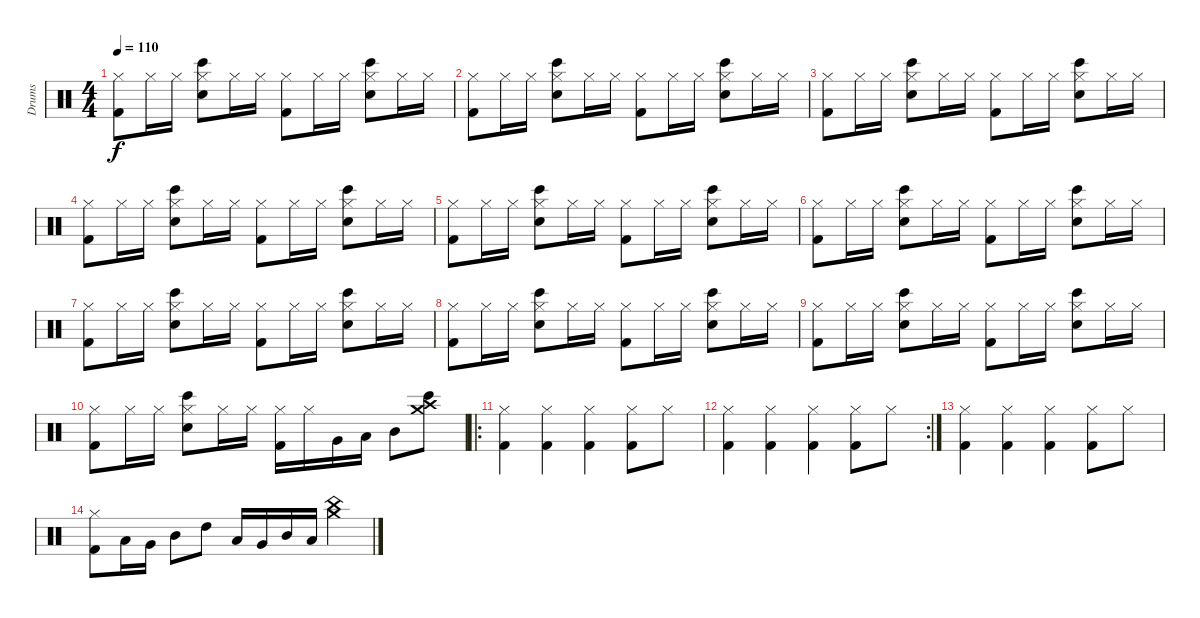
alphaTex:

\track ("Drums" "Drums") {instrument percussion}
\staff {score}
\articulation defaults
\ts (4 4)
\tempo 110
\clef neutral
\ks c
("Hi-Hat (closed)" "Kick (hit) 2").8{dy f} "Hi-Hat (closed)".16 "Hi-Hat (closed)".16 ("Hi-Hat (closed)" "Snare (hit) 2" "Bongo High (hit)").8 "Hi-Hat (closed)".16 "Hi-Hat (closed)".16 ("Hi-Hat (closed)" "Kick (hit) 2").8 "Hi-Hat (closed)".16 "Hi-Hat (closed)".16 ("Hi-Hat (closed)" "Snare (hit) 2" "Bongo High (hit)").8 "Hi-Hat (closed)".16 "Hi-Hat (closed)".16 |
("Hi-Hat (closed)" "Kick (hit) 2").8 "Hi-Hat (closed)".16 "Hi-Hat (closed)".16 ("Hi-Hat (closed)" "Snare (hit) 2" "Bongo High (hit)").8 "Hi-Hat (closed)".16 "Hi-Hat (closed)".16 ("Hi-Hat (closed)" "Kick (hit) 2").8 "Hi-Hat (closed)".16 "Hi-Hat (closed)".16 ("Hi-Hat (closed)" "Snare (hit) 2" "Bongo High (hit)").8 "Hi-Hat (closed)".16 "Hi-Hat (closed)".16 |
("Hi-Hat (closed)" "Kick (hit) 2").8 "Hi-Hat (closed)".16 "Hi-Hat (closed)".16 ("Hi-Hat (closed)" "Snare (hit) 2" "Bongo High (hit)").8 "Hi-Hat (closed)".16 "Hi-Hat (closed)".16 ("Hi-Hat (closed)" "Kick (hit) 2").8 "Hi-Hat (closed)".16 "Hi-Hat (closed)".16 ("Hi-Hat (closed)" "Snare (hit) 2" "Bongo High (hit)").8 "Hi-Hat (closed)".16 "Hi-Hat (closed)".16 |
("Hi-Hat (closed)" "Kick (hit) 2").8 "Hi-Hat (closed)".16 "Hi-Hat (closed)".16 ("Hi-Hat (closed)" "Snare (hit) 2" "Bongo High (hit)").8 "Hi-Hat (closed)".16 "Hi-Hat (closed)".16 ("Hi-Hat (closed)" "Kick (hit) 2").8 "Hi-Hat (closed)".16 "Hi-Hat (closed)".16 ("Hi-Hat (closed)" "Snare (hit) 2" "Bongo High (hit)").8 "Hi-Hat (closed)".16 "Hi-Hat (closed)".16 |
("Hi-Hat (closed)" "Kick (hit) 2").8 "Hi-Hat (closed)".16 "Hi-Hat (closed)".16 ("Hi-Hat (closed)" "Snare (hit) 2" "Bongo High (hit)").8 "Hi-Hat (closed)".16 "Hi-Hat (closed)".16 ("Hi-Hat (closed)" "Kick (hit) 2").8 "Hi-Hat (closed)".16 "Hi-Hat (closed)".16 ("Hi-Hat (closed)" "Snare (hit) 2" "Bongo High (hit)").8 "Hi-Hat (closed)".16 "Hi-Hat (closed)".16 |
("Hi-Hat (closed)" "Kick (hit) 2").8 "Hi-Hat (closed)".16 "Hi-Hat (closed)".16 ("Hi-Hat (closed)" "Snare (hit) 2" "Bongo High (hit)").8 "Hi-Hat (closed)".16 "Hi-Hat (closed)".16 ("Hi-Hat (closed)" "Kick (hit) 2").8 "Hi-Hat (closed)".16 "Hi-Hat (closed)".16 ("Hi-Hat (closed)" "Snare (hit) 2" "Bongo High (hit)").8 "Hi-Hat (closed)".16 "Hi-Hat (closed)".16 |
("Hi-Hat (closed)" "Kick (hit) 2").8 "Hi-Hat (closed)".16 "Hi-Hat (closed)".16 ("Hi-Hat (closed)" "Snare (hit) 2" "Bongo High (hit)").8 "Hi-Hat (closed)".16 "Hi-Hat (closed)".16 ("Hi-Hat (closed)" "Kick (hit) 2").8 "Hi-Hat (closed)".16 "Hi-Hat (closed)".16 ("Hi-Hat (closed)" "Snare (hit) 2" "Bongo High (hit)").8 "Hi-Hat (closed)".16 "Hi-Hat (closed)".16 |
("Hi-Hat (closed)" "Kick (hit) 2").8 "Hi-Hat (closed)".16 "Hi-Hat (closed)".16 ("Hi-Hat (closed)" "Snare (hit) 2" "Bongo High (hit)").8 "Hi-Hat (closed)".16 "Hi-Hat (closed)".16 ("Hi-Hat (closed)" "Kick (hit) 2").8 "Hi-Hat (closed)".16 "Hi-Hat (closed)".16 ("Hi-Hat (closed)" "Snare (hit) 2" "Bongo High (hit)").8 "Hi-Hat (closed)".16 "Hi-Hat (closed)".16 |
("Hi-Hat (closed)" "Kick (hit) 2").8 "Hi-Hat (closed)".16 "Hi-Hat (closed)".16 ("Hi-Hat (closed)" "Snare (hit) 2" "Bongo High (hit)").8 "Hi-Hat (closed)".16 "Hi-Hat (closed)".16 ("Hi-Hat (closed)" "Kick (hit) 2").8 "Hi-Hat (closed)".16 "Hi-Hat (closed)".16 ("Hi-Hat (closed)" "Snare (hit) 2" "Bongo High (hit)").8 "Hi-Hat (closed)".16 "Hi-Hat (closed)".16 |
("Hi-Hat (closed)" "Kick (hit) 2").8 "Hi-Hat (closed)".16 "Hi-Hat (closed)".16 ("Hi-Hat (closed)" "Snare (hit) 2" "Bongo High (hit)").8 "Hi-Hat (closed)".16 "Hi-Hat (closed)".16 ("Hi-Hat (closed)" "Kick (hit) 2").16 "Hi-Hat (closed)".16 "Very Low Tom (hit)".16 "Low Tom (hit)".16 "Mid Tom (hit)".8 ("Crash medium (hit)" "Bongo High (hit)" "Crash high (hit)").8 |
\ro
("Hi-Hat (closed)" "Kick (hit) 2").4 ("Hi-Hat (closed)" "Kick (hit) 2").4 ("Hi-Hat (closed)" "Kick (hit) 2").4 ("Hi-Hat (closed)" "Kick (hit) 2").8 "Hi-Hat (closed)".8 |
\rc 2
("Hi-Hat (closed)" "Kick (hit) 2").4 ("Hi-Hat (closed)" "Kick (hit) 2").4 ("Hi-Hat (closed)" "Kick (hit) 2").4 ("Hi-Hat (closed)" "Kick (hit) 2").8 "Hi-Hat (closed)".8 |
("Hi-Hat (closed)" "Kick (hit) 2").4 ("Hi-Hat (closed)" "Kick (hit) 2").4 ("Hi-Hat (closed)" "Kick (hit) 2").4 ("Hi-Hat (closed)" "Kick (hit) 2").8 "Hi-Hat (closed)".8 |
("Hi-Hat (closed)" "Kick (hit) 2").8 "Low Floor Tom (hit)".16 "Very Low Tom (hit)".16 "Mid Tom (hit)".8 "High Tom (hit)".8 "Low Floor Tom (hit)".16 "Very Low Tom (hit)".16 "Mid Tom (hit)".16 "Low Tom (hit)".16 ("China (hit)" "Crash medium (hit)").4
